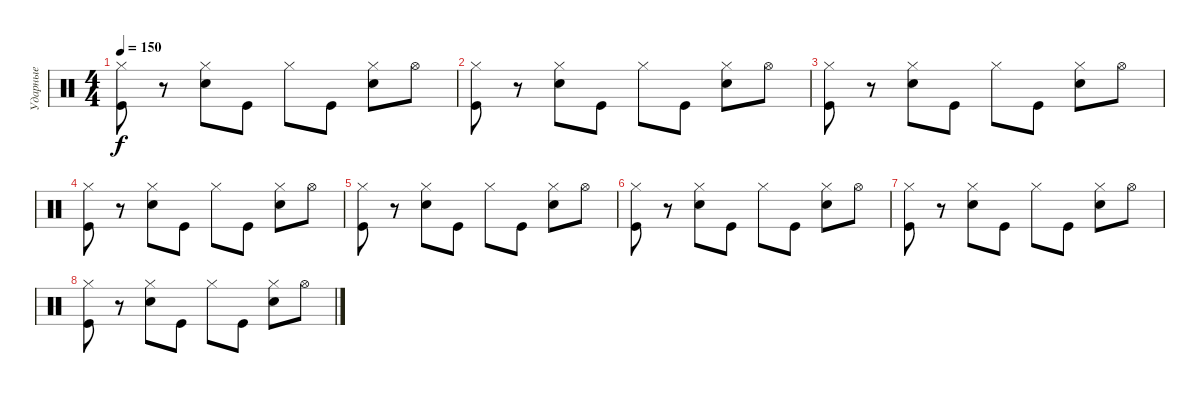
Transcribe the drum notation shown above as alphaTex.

\track ("Ударные" "Ударные") {instrument percussion}
\staff {score}
\articulation defaults
\ts (4 4)
\tempo 150
\clef neutral
\ks c
("Kick (hit)" "Hi-Hat (closed)").8{dy f} r.8 ("Hand Clap (hit)" "Hi-Hat (closed)").8 "Kick (hit)".8 "Hi-Hat (closed)".8 "Kick (hit)".8 ("Hand Clap (hit)" "Hi-Hat (closed)").8 "Hi-Hat (open)".8 |
("Kick (hit)" "Hi-Hat (closed)").8 r.8 ("Hand Clap (hit)" "Hi-Hat (closed)").8 "Kick (hit)".8 "Hi-Hat (closed)".8 "Kick (hit)".8 ("Hand Clap (hit)" "Hi-Hat (closed)").8 "Hi-Hat (open)".8 |
("Kick (hit)" "Hi-Hat (closed)").8 r.8 ("Hand Clap (hit)" "Hi-Hat (closed)").8 "Kick (hit)".8 "Hi-Hat (closed)".8 "Kick (hit)".8 ("Hand Clap (hit)" "Hi-Hat (closed)").8 "Hi-Hat (open)".8 |
("Kick (hit)" "Hi-Hat (closed)").8 r.8 ("Hand Clap (hit)" "Hi-Hat (closed)").8 "Kick (hit)".8 "Hi-Hat (closed)".8 "Kick (hit)".8 ("Hand Clap (hit)" "Hi-Hat (closed)").8 "Hi-Hat (open)".8 |
("Kick (hit)" "Hi-Hat (closed)").8 r.8 ("Hand Clap (hit)" "Hi-Hat (closed)").8 "Kick (hit)".8 "Hi-Hat (closed)".8 "Kick (hit)".8 ("Hand Clap (hit)" "Hi-Hat (closed)").8 "Hi-Hat (open)".8 |
("Kick (hit)" "Hi-Hat (closed)").8 r.8 ("Hand Clap (hit)" "Hi-Hat (closed)").8 "Kick (hit)".8 "Hi-Hat (closed)".8 "Kick (hit)".8 ("Hand Clap (hit)" "Hi-Hat (closed)").8 "Hi-Hat (open)".8 |
("Kick (hit)" "Hi-Hat (closed)").8 r.8 ("Hand Clap (hit)" "Hi-Hat (closed)").8 "Kick (hit)".8 "Hi-Hat (closed)".8 "Kick (hit)".8 ("Hand Clap (hit)" "Hi-Hat (closed)").8 "Hi-Hat (open)".8 |
("Kick (hit)" "Hi-Hat (closed)").8 r.8 ("Hand Clap (hit)" "Hi-Hat (closed)").8 "Kick (hit)".8 "Hi-Hat (closed)".8 "Kick (hit)".8 ("Hand Clap (hit)" "Hi-Hat (closed)").8 "Hi-Hat (open)".8
